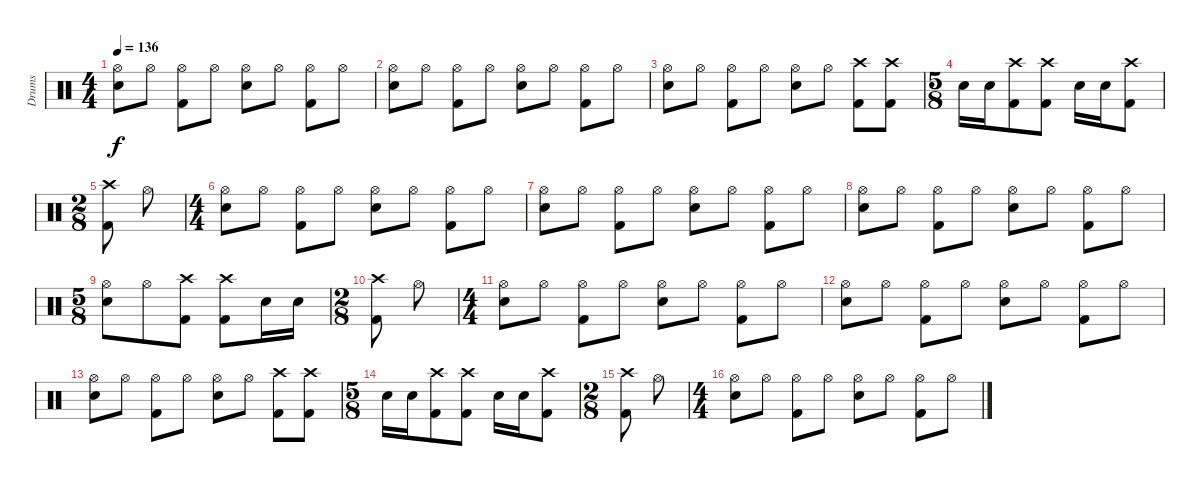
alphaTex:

\track ("Drums" "Drums") {instrument percussion}
\staff {score}
\articulation defaults
\ts (4 4)
\tempo 136
\clef neutral
\ks c
("Hi-Hat (open)" "Snare (hit) 2").8{dy f} "Hi-Hat (open)".8 ("Hi-Hat (open)" "Kick (hit) 2").8 "Hi-Hat (open)".8 ("Hi-Hat (open)" "Snare (hit) 2").8 "Hi-Hat (open)".8 ("Hi-Hat (open)" "Kick (hit) 2").8 "Hi-Hat (open)".8 |
("Hi-Hat (open)" "Snare (hit) 2").8 "Hi-Hat (open)".8 ("Hi-Hat (open)" "Kick (hit) 2").8 "Hi-Hat (open)".8 ("Hi-Hat (open)" "Snare (hit) 2").8 "Hi-Hat (open)".8 ("Hi-Hat (open)" "Kick (hit) 2").8 "Hi-Hat (open)".8 |
("Hi-Hat (open)" "Snare (hit) 2").8 "Hi-Hat (open)".8 ("Hi-Hat (open)" "Kick (hit) 2").8 "Hi-Hat (open)".8 ("Hi-Hat (open)" "Snare (hit) 2").8 "Hi-Hat (open)".8 ("Crash high (hit)" "Kick (hit) 2").8 ("Crash high (hit)" "Kick (hit) 2").8 |
\ts (5 8)
"Snare (hit) 2".16 "Snare (hit) 2".16 ("Crash high (hit)" "Kick (hit) 2").8 ("Crash high (hit)" "Kick (hit) 2").8 "Snare (hit) 2".16 "Snare (hit) 2".16 ("Crash high (hit)" "Kick (hit) 2").8 |
\ts (2 8)
("Crash high (hit)" "Kick (hit) 2").8 "Hi-Hat (open)".8 |
\ts (4 4)
("Hi-Hat (open)" "Snare (hit) 2").8 "Hi-Hat (open)".8 ("Hi-Hat (open)" "Kick (hit) 2").8 "Hi-Hat (open)".8 ("Hi-Hat (open)" "Snare (hit) 2").8 "Hi-Hat (open)".8 ("Hi-Hat (open)" "Kick (hit) 2").8 "Hi-Hat (open)".8 |
("Hi-Hat (open)" "Snare (hit) 2").8 "Hi-Hat (open)".8 ("Hi-Hat (open)" "Kick (hit) 2").8 "Hi-Hat (open)".8 ("Hi-Hat (open)" "Snare (hit) 2").8 "Hi-Hat (open)".8 ("Hi-Hat (open)" "Kick (hit) 2").8 "Hi-Hat (open)".8 |
("Hi-Hat (open)" "Snare (hit) 2").8 "Hi-Hat (open)".8 ("Hi-Hat (open)" "Kick (hit) 2").8 "Hi-Hat (open)".8 ("Hi-Hat (open)" "Snare (hit) 2").8 "Hi-Hat (open)".8 ("Hi-Hat (open)" "Kick (hit) 2").8 "Hi-Hat (open)".8 |
\ts (5 8)
("Hi-Hat (open)" "Snare (hit) 2").8 "Hi-Hat (open)".8 ("Crash high (hit)" "Kick (hit) 2").8 ("Crash high (hit)" "Kick (hit) 2").8 "Snare (hit) 2".16 "Snare (hit) 2".16 |
\ts (2 8)
("Crash high (hit)" "Kick (hit) 2").8 "Hi-Hat (open)".8 |
\ts (4 4)
("Hi-Hat (open)" "Snare (hit) 2").8 "Hi-Hat (open)".8 ("Hi-Hat (open)" "Kick (hit) 2").8 "Hi-Hat (open)".8 ("Hi-Hat (open)" "Snare (hit) 2").8 "Hi-Hat (open)".8 ("Hi-Hat (open)" "Kick (hit) 2").8 "Hi-Hat (open)".8 |
("Hi-Hat (open)" "Snare (hit) 2").8 "Hi-Hat (open)".8 ("Hi-Hat (open)" "Kick (hit) 2").8 "Hi-Hat (open)".8 ("Hi-Hat (open)" "Snare (hit) 2").8 "Hi-Hat (open)".8 ("Hi-Hat (open)" "Kick (hit) 2").8 "Hi-Hat (open)".8 |
("Hi-Hat (open)" "Snare (hit) 2").8 "Hi-Hat (open)".8 ("Hi-Hat (open)" "Kick (hit) 2").8 "Hi-Hat (open)".8 ("Hi-Hat (open)" "Snare (hit) 2").8 "Hi-Hat (open)".8 ("Crash high (hit)" "Kick (hit) 2").8 ("Crash high (hit)" "Kick (hit) 2").8 |
\ts (5 8)
"Snare (hit) 2".16 "Snare (hit) 2".16 ("Crash high (hit)" "Kick (hit) 2").8 ("Crash high (hit)" "Kick (hit) 2").8 "Snare (hit) 2".16 "Snare (hit) 2".16 ("Crash high (hit)" "Kick (hit) 2").8 |
\ts (2 8)
("Crash high (hit)" "Kick (hit) 2").8 "Hi-Hat (open)".8 |
\ts (4 4)
("Hi-Hat (open)" "Snare (hit) 2").8 "Hi-Hat (open)".8 ("Hi-Hat (open)" "Kick (hit) 2").8 "Hi-Hat (open)".8 ("Hi-Hat (open)" "Snare (hit) 2").8 "Hi-Hat (open)".8 ("Hi-Hat (open)" "Kick (hit) 2").8 "Hi-Hat (open)".8
